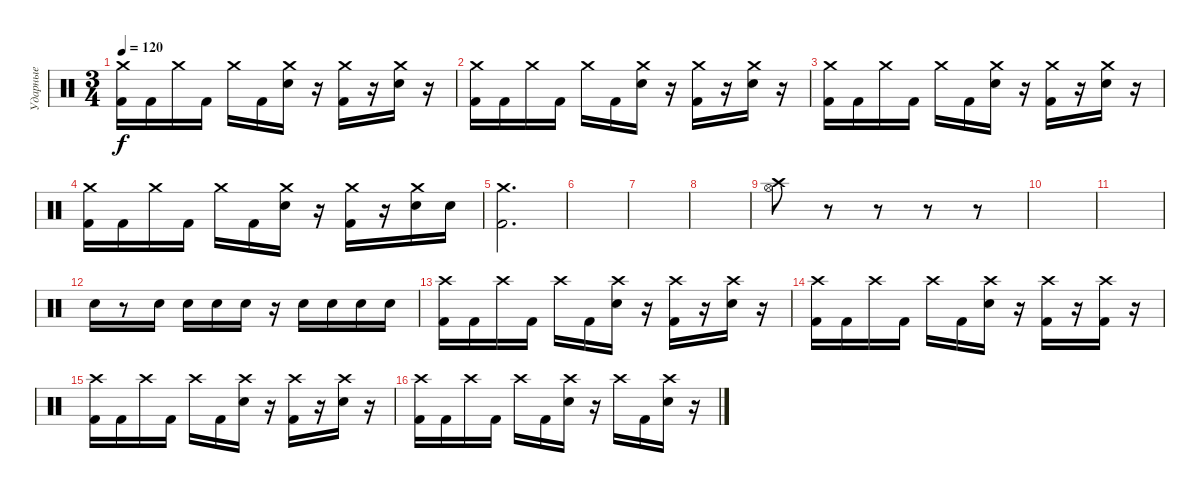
\track ("Ударные" "Ударные") {instrument percussion}
\staff {score}
\articulation defaults
\ts (3 4)
\tempo 120
\clef neutral
\ks c
("Crash medium (hit)" "Kick (hit) 2").16{dy f} "Kick (hit) 2".16 "Crash medium (hit)".16 "Kick (hit) 2".16 "Crash medium (hit)".16 "Kick (hit) 2".16 ("Crash medium (hit)" "Electric Snare (hit)").16 r.16 ("Crash medium (hit)" "Kick (hit) 2").16 r.16 ("Crash medium (hit)" "Electric Snare (hit)").16 r.16 |
("Crash medium (hit)" "Kick (hit) 2").16 "Kick (hit) 2".16 "Crash medium (hit)".16 "Kick (hit) 2".16 "Crash medium (hit)".16 "Kick (hit) 2".16 ("Crash medium (hit)" "Electric Snare (hit)").16 r.16 ("Crash medium (hit)" "Kick (hit) 2").16 r.16 ("Crash medium (hit)" "Electric Snare (hit)").16 r.16 |
("Crash medium (hit)" "Kick (hit) 2").16 "Kick (hit) 2".16 "Crash medium (hit)".16 "Kick (hit) 2".16 "Crash medium (hit)".16 "Kick (hit) 2".16 ("Crash medium (hit)" "Electric Snare (hit)").16 r.16 ("Crash medium (hit)" "Kick (hit) 2").16 r.16 ("Crash medium (hit)" "Electric Snare (hit)").16 r.16 |
("Crash medium (hit)" "Kick (hit) 2").16 "Kick (hit) 2".16 "Crash medium (hit)".16 "Kick (hit) 2".16 "Crash medium (hit)".16 "Kick (hit) 2".16 ("Crash medium (hit)" "Electric Snare (hit)").16 r.16 ("Crash medium (hit)" "Kick (hit) 2").16 r.16 ("Crash medium (hit)" "Electric Snare (hit)").16 "Electric Snare (hit)".16 |
("Crash medium (hit)" "Kick (hit) 2").2{d} |
|
|
|
("Crash high (hit)" "Hi-Hat (open)").8 r.8 r.8 r.8 r.8 |
|
|
"Electric Snare (hit)".16 r.8 "Electric Snare (hit)".16 "Electric Snare (hit)".16 "Electric Snare (hit)".16 "Electric Snare (hit)".16 r.16 "Electric Snare (hit)".16 "Electric Snare (hit)".16 "Electric Snare (hit)".16 "Electric Snare (hit)".16 |
("Crash high (hit)" "Kick (hit) 2").16 "Kick (hit) 2".16 "Crash high (hit)".16 "Kick (hit) 2".16 "Crash high (hit)".16 "Kick (hit) 2".16 ("Crash high (hit)" "Electric Snare (hit)").16 r.16 ("Crash high (hit)" "Kick (hit) 2").16 r.16 ("Crash high (hit)" "Electric Snare (hit)").16 r.16 |
("Crash high (hit)" "Kick (hit) 2").16 "Kick (hit) 2".16 "Crash high (hit)".16 "Kick (hit) 2".16 "Crash high (hit)".16 "Kick (hit) 2".16 ("Crash high (hit)" "Electric Snare (hit)").16 r.16 ("Crash high (hit)" "Kick (hit) 2").16 r.16 ("Crash high (hit)" "Kick (hit) 2").16 r.16 |
("Crash high (hit)" "Kick (hit) 2").16 "Kick (hit) 2".16 "Crash high (hit)".16 "Kick (hit) 2".16 "Crash high (hit)".16 "Kick (hit) 2".16 ("Crash high (hit)" "Electric Snare (hit)").16 r.16 ("Crash high (hit)" "Kick (hit) 2").16 r.16 ("Crash high (hit)" "Electric Snare (hit)").16 r.16 |
("Crash high (hit)" "Kick (hit) 2").16 "Kick (hit) 2".16 "Crash high (hit)".16 "Kick (hit) 2".16 "Crash high (hit)".16 "Kick (hit) 2".16 ("Crash high (hit)" "Electric Snare (hit)").16 r.16 "Crash high (hit)".16 "Kick (hit) 2".16 ("Crash high (hit)" "Electric Snare (hit)").16 r.16
